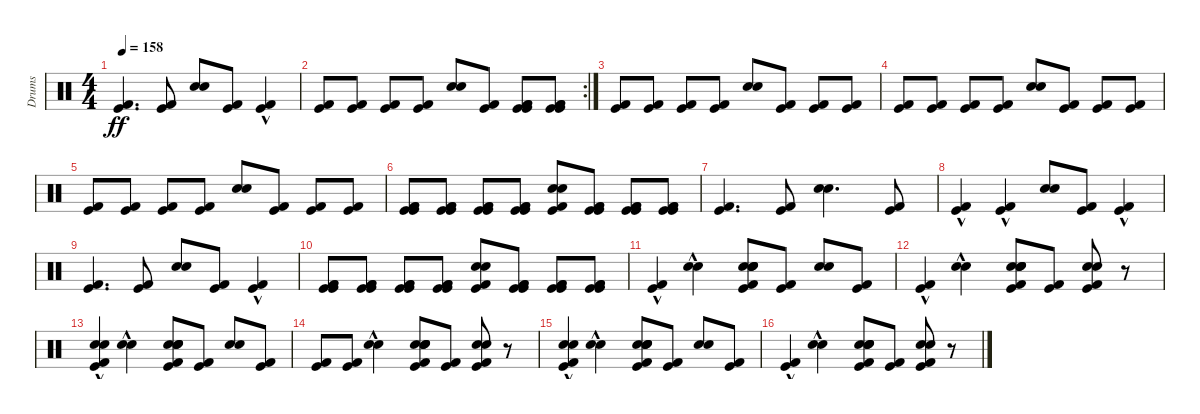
\track ("Drums" "Drums") {instrument percussion}
\staff {score}
\articulation defaults
\ts (4 4)
\tempo 158
\clef neutral
\ks c
("Kick (hit)" "Kick (hit) 2").4{d dy ff} ("Kick (hit)" "Kick (hit) 2").8 ("Snare (hit) 2" "Electric Snare (hit)").8 ("Kick (hit)" "Kick (hit) 2").8 ("Kick (hit)"{hac} "Kick (hit) 2"{hac}).4 |
\rc 2
("Kick (hit)" "Kick (hit) 2").8 ("Kick (hit)" "Kick (hit) 2").8 ("Kick (hit)" "Kick (hit) 2").8 ("Kick (hit)" "Kick (hit) 2").8 ("Snare (hit) 2" "Electric Snare (hit)").8 ("Kick (hit)" "Kick (hit) 2").8 ("Kick (hit)" "Kick (hit) 2" "Kick (hit)" "Kick (hit) 2").8 ("Kick (hit)" "Kick (hit) 2" "Kick (hit)" "Kick (hit) 2").8 |
("Kick (hit)" "Kick (hit) 2").8 ("Kick (hit)" "Kick (hit) 2").8 ("Kick (hit)" "Kick (hit) 2").8 ("Kick (hit)" "Kick (hit) 2").8 ("Snare (hit) 2" "Electric Snare (hit)").8 ("Kick (hit)" "Kick (hit) 2").8 ("Kick (hit)" "Kick (hit) 2").8 ("Kick (hit)" "Kick (hit) 2").8 |
("Kick (hit)" "Kick (hit) 2").8 ("Kick (hit)" "Kick (hit) 2").8 ("Kick (hit)" "Kick (hit) 2").8 ("Kick (hit)" "Kick (hit) 2").8 ("Snare (hit) 2" "Electric Snare (hit)").8 ("Kick (hit)" "Kick (hit) 2").8 ("Kick (hit)" "Kick (hit) 2").8 ("Kick (hit)" "Kick (hit) 2").8 |
("Kick (hit)" "Kick (hit) 2").8 ("Kick (hit)" "Kick (hit) 2").8 ("Kick (hit)" "Kick (hit) 2").8 ("Kick (hit)" "Kick (hit) 2").8 ("Snare (hit) 2" "Electric Snare (hit)").8 ("Kick (hit)" "Kick (hit) 2").8 ("Kick (hit)" "Kick (hit) 2").8 ("Kick (hit)" "Kick (hit) 2").8 |
("Kick (hit)" "Kick (hit) 2" "Kick (hit)" "Kick (hit) 2").8 ("Kick (hit)" "Kick (hit) 2" "Kick (hit)" "Kick (hit) 2").8 ("Kick (hit)" "Kick (hit) 2" "Kick (hit)" "Kick (hit) 2").8 ("Kick (hit)" "Kick (hit) 2" "Kick (hit)" "Kick (hit) 2").8 ("Snare (hit) 2" "Electric Snare (hit)" "Kick (hit)" "Kick (hit) 2").8 ("Kick (hit)" "Kick (hit) 2" "Kick (hit)" "Kick (hit) 2").8 ("Kick (hit)" "Kick (hit) 2" "Kick (hit)" "Kick (hit) 2").8 ("Kick (hit)" "Kick (hit) 2" "Kick (hit)" "Kick (hit) 2").8 |
("Kick (hit)" "Kick (hit) 2").4{d} ("Kick (hit)" "Kick (hit) 2").8 ("Snare (hit) 2" "Electric Snare (hit)").4{d} ("Kick (hit)" "Kick (hit) 2").8 |
("Kick (hit)"{hac} "Kick (hit) 2"{hac}).4 ("Kick (hit)"{hac} "Kick (hit) 2"{hac}).4 ("Snare (hit) 2" "Electric Snare (hit)").8 ("Kick (hit)" "Kick (hit) 2").8 ("Kick (hit)"{hac} "Kick (hit) 2"{hac}).4 |
("Kick (hit)" "Kick (hit) 2").4{d} ("Kick (hit)" "Kick (hit) 2").8 ("Snare (hit) 2" "Electric Snare (hit)").8 ("Kick (hit)" "Kick (hit) 2").8 ("Kick (hit)"{hac} "Kick (hit) 2"{hac}).4 |
("Kick (hit)" "Kick (hit) 2" "Kick (hit)" "Kick (hit) 2").8 ("Kick (hit)" "Kick (hit) 2" "Kick (hit)" "Kick (hit) 2").8 ("Kick (hit)" "Kick (hit) 2" "Kick (hit)" "Kick (hit) 2").8 ("Kick (hit)" "Kick (hit) 2" "Kick (hit)" "Kick (hit) 2").8 ("Snare (hit) 2" "Electric Snare (hit)" "Kick (hit)" "Kick (hit) 2").8 ("Kick (hit)" "Kick (hit) 2" "Kick (hit)" "Kick (hit) 2").8 ("Kick (hit)" "Kick (hit) 2" "Kick (hit)" "Kick (hit) 2").8 ("Kick (hit)" "Kick (hit) 2" "Kick (hit)" "Kick (hit) 2").8 |
("Kick (hit)"{hac} "Kick (hit) 2"{hac}).4 ("Snare (hit) 2"{hac} "Electric Snare (hit)"{hac}).4 ("Snare (hit) 2" "Electric Snare (hit)" "Kick (hit)" "Kick (hit) 2" "Snare (hit) 2" "Electric Snare (hit)").8 ("Kick (hit)" "Kick (hit) 2").8 ("Snare (hit) 2" "Electric Snare (hit)").8 ("Kick (hit)" "Kick (hit) 2").8 |
("Kick (hit)"{hac} "Kick (hit) 2"{hac}).4 ("Snare (hit) 2"{hac} "Electric Snare (hit)"{hac}).4 ("Snare (hit) 2" "Electric Snare (hit)" "Kick (hit)" "Kick (hit) 2" "Snare (hit) 2" "Electric Snare (hit)").8 ("Kick (hit)" "Kick (hit) 2").8 ("Snare (hit) 2" "Electric Snare (hit)" "Kick (hit)" "Kick (hit) 2").8 r.8 |
("Snare (hit) 2" "Electric Snare (hit)" "Kick (hit)"{hac} "Kick (hit) 2"{hac}).4 ("Snare (hit) 2"{hac} "Electric Snare (hit)"{hac}).4 ("Snare (hit) 2" "Electric Snare (hit)" "Kick (hit)" "Kick (hit) 2" "Snare (hit) 2" "Electric Snare (hit)").8 ("Kick (hit)" "Kick (hit) 2").8 ("Snare (hit) 2" "Electric Snare (hit)").8 ("Kick (hit)" "Kick (hit) 2").8 |
("Kick (hit)" "Kick (hit) 2").8 ("Kick (hit)" "Kick (hit) 2").8 ("Snare (hit) 2"{hac} "Electric Snare (hit)"{hac}).4 ("Snare (hit) 2" "Electric Snare (hit)" "Kick (hit)" "Kick (hit) 2" "Snare (hit) 2" "Electric Snare (hit)").8 ("Kick (hit)" "Kick (hit) 2").8 ("Snare (hit) 2" "Electric Snare (hit)" "Kick (hit)" "Kick (hit) 2").8 r.8 |
("Snare (hit) 2" "Electric Snare (hit)" "Kick (hit)"{hac} "Kick (hit) 2"{hac}).4 ("Snare (hit) 2"{hac} "Electric Snare (hit)"{hac}).4 ("Snare (hit) 2" "Electric Snare (hit)" "Kick (hit)" "Kick (hit) 2" "Snare (hit) 2" "Electric Snare (hit)").8 ("Kick (hit)" "Kick (hit) 2").8 ("Snare (hit) 2" "Electric Snare (hit)").8 ("Kick (hit)" "Kick (hit) 2").8 |
("Kick (hit)"{hac} "Kick (hit) 2"{hac}).4 ("Snare (hit) 2"{hac} "Electric Snare (hit)"{hac}).4 ("Snare (hit) 2" "Electric Snare (hit)" "Kick (hit)" "Kick (hit) 2" "Snare (hit) 2" "Electric Snare (hit)").8 ("Kick (hit)" "Kick (hit) 2").8 ("Snare (hit) 2" "Electric Snare (hit)" "Kick (hit)" "Kick (hit) 2").8 r.8
